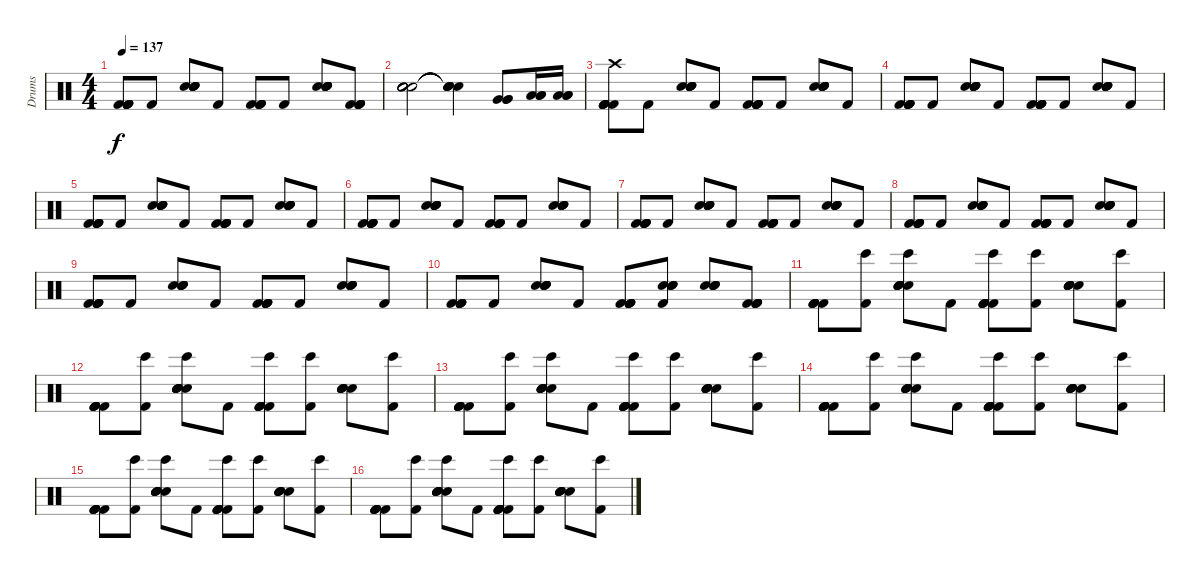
\track ("Drums" "Drums") {instrument percussion}
\staff {score}
\articulation defaults
\ts (4 4)
\tempo 137
\clef neutral
\ks c
("Kick (hit) 2" "Kick (hit) 2" "Kick (hit) 2" "Kick (hit) 2" "Kick (hit) 2").8{dy f} "Kick (hit) 2".8 ("Snare (hit) 2" "Snare (hit) 2" "Snare (hit) 2" "Snare (hit) 2" "Snare (hit) 2").8 "Kick (hit) 2".8 ("Kick (hit) 2" "Kick (hit) 2" "Kick (hit) 2" "Kick (hit) 2" "Kick (hit) 2").8 "Kick (hit) 2".8 ("Snare (hit) 2" "Snare (hit) 2" "Snare (hit) 2" "Snare (hit) 2" "Snare (hit) 2").8 ("Kick (hit) 2" "Kick (hit) 2" "Kick (hit) 2" "Kick (hit) 2" "Kick (hit) 2").8 |
("Electric Snare (hit)" "Electric Snare (hit)" "Electric Snare (hit)" "Electric Snare (hit)" "Electric Snare (hit)").2 ("Snare (hit)"{t} "Snare (hit)"{t} "Snare (hit)"{t} "Snare (hit)"{t} "Snare (hit)"{t}).4 ("Very Low Tom (hit)" "Very Low Tom (hit)" "Very Low Tom (hit)").8 ("Low Floor Tom (hit)" "Low Floor Tom (hit)" "Low Floor Tom (hit)").16 ("Low Floor Tom (hit)" "Low Floor Tom (hit)" "Low Floor Tom (hit)").16 |
("Crash high (hit)" "Kick (hit) 2" "Kick (hit) 2" "Kick (hit) 2" "Kick (hit) 2" "Kick (hit) 2").8 "Kick (hit) 2".8 ("Snare (hit) 2" "Snare (hit) 2" "Snare (hit) 2" "Snare (hit) 2" "Snare (hit) 2").8 "Kick (hit) 2".8 ("Kick (hit) 2" "Kick (hit) 2" "Kick (hit) 2" "Kick (hit) 2" "Kick (hit) 2").8 "Kick (hit) 2".8 ("Snare (hit) 2" "Snare (hit) 2" "Snare (hit) 2" "Snare (hit) 2" "Snare (hit) 2").8 "Kick (hit) 2".8 |
("Kick (hit) 2" "Kick (hit) 2" "Kick (hit) 2" "Kick (hit) 2" "Kick (hit) 2").8 "Kick (hit) 2".8 ("Snare (hit) 2" "Snare (hit) 2" "Snare (hit) 2" "Snare (hit) 2" "Snare (hit) 2").8 "Kick (hit) 2".8 ("Kick (hit) 2" "Kick (hit) 2" "Kick (hit) 2" "Kick (hit) 2" "Kick (hit) 2").8 "Kick (hit) 2".8 ("Snare (hit) 2" "Snare (hit) 2" "Snare (hit) 2" "Snare (hit) 2" "Snare (hit) 2").8 "Kick (hit) 2".8 |
("Kick (hit) 2" "Kick (hit) 2" "Kick (hit) 2" "Kick (hit) 2" "Kick (hit) 2").8 "Kick (hit) 2".8 ("Snare (hit) 2" "Snare (hit) 2" "Snare (hit) 2" "Snare (hit) 2" "Snare (hit) 2").8 "Kick (hit) 2".8 ("Kick (hit) 2" "Kick (hit) 2" "Kick (hit) 2" "Kick (hit) 2" "Kick (hit) 2").8 "Kick (hit) 2".8 ("Snare (hit) 2" "Snare (hit) 2" "Snare (hit) 2" "Snare (hit) 2" "Snare (hit) 2").8 "Kick (hit) 2".8 |
("Kick (hit) 2" "Kick (hit) 2" "Kick (hit) 2" "Kick (hit) 2" "Kick (hit) 2").8 "Kick (hit) 2".8 ("Snare (hit) 2" "Snare (hit) 2" "Snare (hit) 2" "Snare (hit) 2" "Snare (hit) 2").8 "Kick (hit) 2".8 ("Kick (hit) 2" "Kick (hit) 2" "Kick (hit) 2" "Kick (hit) 2" "Kick (hit) 2").8 "Kick (hit) 2".8 ("Snare (hit) 2" "Snare (hit) 2" "Snare (hit) 2" "Snare (hit) 2" "Snare (hit) 2").8 "Kick (hit) 2".8 |
("Kick (hit) 2" "Kick (hit) 2" "Kick (hit) 2" "Kick (hit) 2" "Kick (hit) 2").8 "Kick (hit) 2".8 ("Snare (hit) 2" "Snare (hit) 2" "Snare (hit) 2" "Snare (hit) 2" "Snare (hit) 2").8 "Kick (hit) 2".8 ("Kick (hit) 2" "Kick (hit) 2" "Kick (hit) 2" "Kick (hit) 2" "Kick (hit) 2").8 "Kick (hit) 2".8 ("Snare (hit) 2" "Snare (hit) 2" "Snare (hit) 2" "Snare (hit) 2" "Snare (hit) 2").8 "Kick (hit) 2".8 |
("Kick (hit) 2" "Kick (hit) 2" "Kick (hit) 2" "Kick (hit) 2" "Kick (hit) 2").8 "Kick (hit) 2".8 ("Snare (hit) 2" "Snare (hit) 2" "Snare (hit) 2" "Snare (hit) 2" "Snare (hit) 2").8 "Kick (hit) 2".8 ("Kick (hit) 2" "Kick (hit) 2" "Kick (hit) 2" "Kick (hit) 2" "Kick (hit) 2").8 "Kick (hit) 2".8 ("Snare (hit) 2" "Snare (hit) 2" "Snare (hit) 2" "Snare (hit) 2" "Snare (hit) 2").8 "Kick (hit) 2".8 |
("Kick (hit) 2" "Kick (hit) 2" "Kick (hit) 2" "Kick (hit) 2" "Kick (hit) 2").8 "Kick (hit) 2".8 ("Snare (hit) 2" "Snare (hit) 2" "Snare (hit) 2" "Snare (hit) 2" "Snare (hit) 2").8 "Kick (hit) 2".8 ("Kick (hit) 2" "Kick (hit) 2" "Kick (hit) 2" "Kick (hit) 2" "Kick (hit) 2").8 "Kick (hit) 2".8 ("Snare (hit) 2" "Snare (hit) 2" "Snare (hit) 2" "Snare (hit) 2" "Snare (hit) 2").8 "Kick (hit) 2".8 |
("Kick (hit) 2" "Kick (hit) 2" "Kick (hit) 2" "Kick (hit) 2" "Kick (hit) 2").8 "Kick (hit) 2".8 ("Snare (hit) 2" "Snare (hit) 2" "Snare (hit) 2" "Snare (hit) 2" "Snare (hit) 2").8 "Kick (hit) 2".8 ("Kick (hit) 2" "Kick (hit) 2" "Kick (hit) 2" "Kick (hit) 2" "Kick (hit) 2").8 ("Kick (hit) 2" "Snare (hit) 2" "Snare (hit) 2" "Snare (hit) 2" "Snare (hit) 2").8 ("Snare (hit) 2" "Snare (hit) 2" "Snare (hit) 2" "Snare (hit) 2" "Snare (hit) 2").8 ("Kick (hit) 2" "Kick (hit) 2" "Kick (hit) 2" "Kick (hit) 2" "Kick (hit) 2").8 |
("Kick (hit) 2" "Kick (hit) 2" "Kick (hit) 2" "Kick (hit) 2" "Kick (hit) 2").8 ("Bongo High (hit)" "Kick (hit) 2").8 ("Bongo High (hit)" "Snare (hit) 2" "Snare (hit) 2" "Snare (hit) 2" "Snare (hit) 2" "Snare (hit) 2").8 "Kick (hit) 2".8 ("Bongo High (hit)" "Kick (hit) 2" "Kick (hit) 2" "Kick (hit) 2" "Kick (hit) 2" "Kick (hit) 2").8 ("Bongo High (hit)" "Kick (hit) 2").8 ("Snare (hit) 2" "Snare (hit) 2" "Snare (hit) 2" "Snare (hit) 2" "Snare (hit) 2").8 ("Bongo High (hit)" "Kick (hit) 2").8 |
("Kick (hit) 2" "Kick (hit) 2" "Kick (hit) 2" "Kick (hit) 2" "Kick (hit) 2").8 ("Bongo High (hit)" "Kick (hit) 2").8 ("Bongo High (hit)" "Snare (hit) 2" "Snare (hit) 2" "Snare (hit) 2" "Snare (hit) 2" "Snare (hit) 2").8 "Kick (hit) 2".8 ("Bongo High (hit)" "Kick (hit) 2" "Kick (hit) 2" "Kick (hit) 2" "Kick (hit) 2" "Kick (hit) 2").8 ("Bongo High (hit)" "Kick (hit) 2").8 ("Snare (hit) 2" "Snare (hit) 2" "Snare (hit) 2" "Snare (hit) 2" "Snare (hit) 2").8 ("Bongo High (hit)" "Kick (hit) 2").8 |
("Kick (hit) 2" "Kick (hit) 2" "Kick (hit) 2" "Kick (hit) 2" "Kick (hit) 2").8 ("Bongo High (hit)" "Kick (hit) 2").8 ("Bongo High (hit)" "Snare (hit) 2" "Snare (hit) 2" "Snare (hit) 2" "Snare (hit) 2" "Snare (hit) 2").8 "Kick (hit) 2".8 ("Bongo High (hit)" "Kick (hit) 2" "Kick (hit) 2" "Kick (hit) 2" "Kick (hit) 2" "Kick (hit) 2").8 ("Bongo High (hit)" "Kick (hit) 2").8 ("Snare (hit) 2" "Snare (hit) 2" "Snare (hit) 2" "Snare (hit) 2" "Snare (hit) 2").8 ("Bongo High (hit)" "Kick (hit) 2").8 |
("Kick (hit) 2" "Kick (hit) 2" "Kick (hit) 2" "Kick (hit) 2" "Kick (hit) 2").8 ("Bongo High (hit)" "Kick (hit) 2").8 ("Bongo High (hit)" "Snare (hit) 2" "Snare (hit) 2" "Snare (hit) 2" "Snare (hit) 2" "Snare (hit) 2").8 "Kick (hit) 2".8 ("Bongo High (hit)" "Kick (hit) 2" "Kick (hit) 2" "Kick (hit) 2" "Kick (hit) 2" "Kick (hit) 2").8 ("Bongo High (hit)" "Kick (hit) 2").8 ("Snare (hit) 2" "Snare (hit) 2" "Snare (hit) 2" "Snare (hit) 2" "Snare (hit) 2").8 ("Bongo High (hit)" "Kick (hit) 2").8 |
("Kick (hit) 2" "Kick (hit) 2" "Kick (hit) 2" "Kick (hit) 2" "Kick (hit) 2").8 ("Bongo High (hit)" "Kick (hit) 2").8 ("Bongo High (hit)" "Snare (hit) 2" "Snare (hit) 2" "Snare (hit) 2" "Snare (hit) 2" "Snare (hit) 2").8 "Kick (hit) 2".8 ("Bongo High (hit)" "Kick (hit) 2" "Kick (hit) 2" "Kick (hit) 2" "Kick (hit) 2" "Kick (hit) 2").8 ("Bongo High (hit)" "Kick (hit) 2").8 ("Snare (hit) 2" "Snare (hit) 2" "Snare (hit) 2" "Snare (hit) 2" "Snare (hit) 2").8 ("Bongo High (hit)" "Kick (hit) 2").8 |
("Kick (hit) 2" "Kick (hit) 2" "Kick (hit) 2" "Kick (hit) 2" "Kick (hit) 2").8 ("Bongo High (hit)" "Kick (hit) 2").8 ("Bongo High (hit)" "Snare (hit) 2" "Snare (hit) 2" "Snare (hit) 2" "Snare (hit) 2" "Snare (hit) 2").8 "Kick (hit) 2".8 ("Bongo High (hit)" "Kick (hit) 2" "Kick (hit) 2" "Kick (hit) 2" "Kick (hit) 2" "Kick (hit) 2").8 ("Bongo High (hit)" "Kick (hit) 2").8 ("Snare (hit) 2" "Snare (hit) 2" "Snare (hit) 2" "Snare (hit) 2" "Snare (hit) 2").8 ("Bongo High (hit)" "Kick (hit) 2").8
